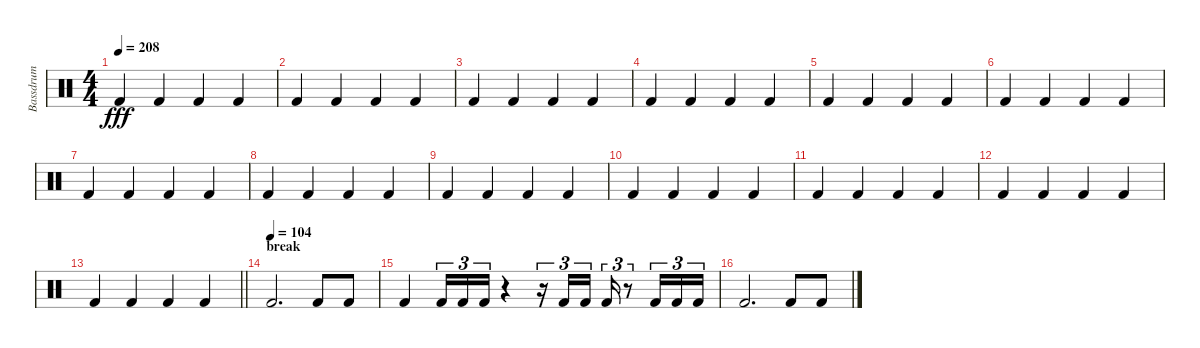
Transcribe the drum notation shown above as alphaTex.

\track ("Bassdrum" "Bassdrum") {instrument percussion}
\staff {score}
\articulation defaults
\ts (4 4)
\tempo 208
\clef neutral
\ks c "Kick (hit) 2".4{dy fff} "Kick (hit) 2".4 "Kick (hit) 2".4 "Kick (hit) 2".4
|
"Kick (hit) 2".4 "Kick (hit) 2".4 "Kick (hit) 2".4 "Kick (hit) 2".4 |
"Kick (hit) 2".4 "Kick (hit) 2".4 "Kick (hit) 2".4 "Kick (hit) 2".4 |
"Kick (hit) 2".4 "Kick (hit) 2".4 "Kick (hit) 2".4 "Kick (hit) 2".4 |
"Kick (hit) 2".4 "Kick (hit) 2".4 "Kick (hit) 2".4 "Kick (hit) 2".4 |
"Kick (hit) 2".4 "Kick (hit) 2".4 "Kick (hit) 2".4 "Kick (hit) 2".4 |
"Kick (hit) 2".4 "Kick (hit) 2".4 "Kick (hit) 2".4 "Kick (hit) 2".4 |
"Kick (hit) 2".4 "Kick (hit) 2".4 "Kick (hit) 2".4 "Kick (hit) 2".4 |
"Kick (hit) 2".4 "Kick (hit) 2".4 "Kick (hit) 2".4 "Kick (hit) 2".4 |
"Kick (hit) 2".4 "Kick (hit) 2".4 "Kick (hit) 2".4 "Kick (hit) 2".4 |
"Kick (hit) 2".4 "Kick (hit) 2".4 "Kick (hit) 2".4 "Kick (hit) 2".4 |
"Kick (hit) 2".4 "Kick (hit) 2".4 "Kick (hit) 2".4 "Kick (hit) 2".4 |
\barLineRight lightlight "Kick (hit) 2".4 "Kick (hit) 2".4 "Kick (hit) 2".4 "Kick (hit) 2".4
|
\section ("" "break")
\tempo (104)
"Kick (hit) 2".2{d} "Kick (hit) 2".8 "Kick (hit) 2".8 |
"Kick (hit) 2".4 "Kick (hit) 2".16{tu (3 2)} "Kick (hit) 2".16{tu (3 2)} "Kick (hit) 2".16{tu (3 2)} r.4 r.16{tu (3 2)} "Kick (hit) 2".16{tu (3 2)} "Kick (hit) 2".16{tu (3 2)} "Kick (hit) 2".16{tu (3 2)} r.8{tu (3 2)} "Kick (hit) 2".16{tu (3 2)} "Kick (hit) 2".16{tu (3 2)} "Kick (hit) 2".16{tu (3 2)} |
"Kick (hit) 2".2{d} "Kick (hit) 2".8 "Kick (hit) 2".8
